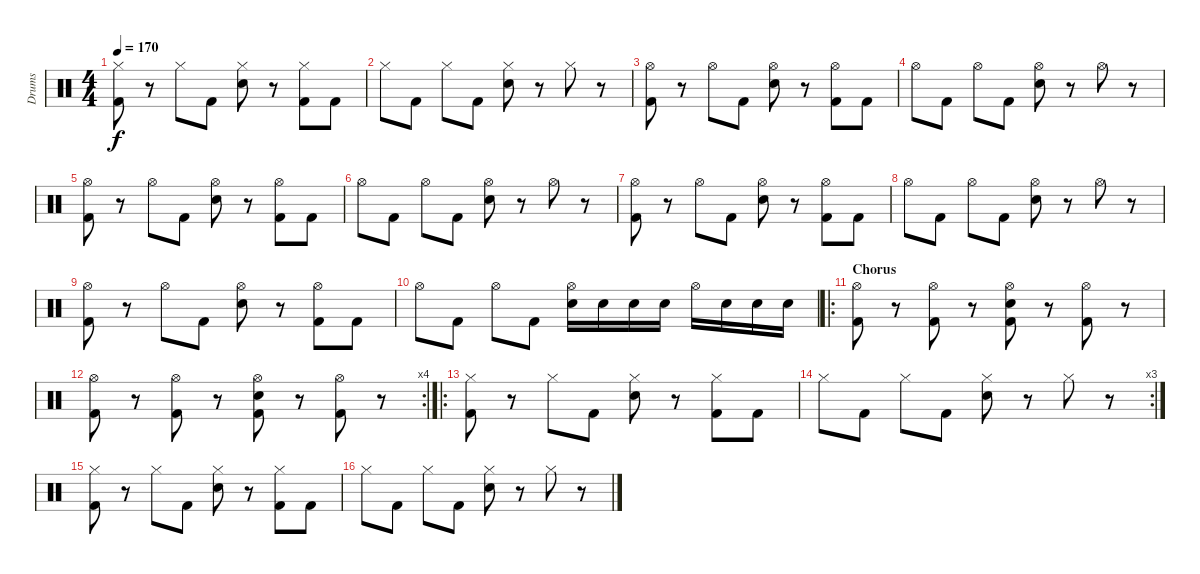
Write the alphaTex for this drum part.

\track ("Drums" "Drums") {instrument percussion}
\staff {score}
\articulation defaults
\ts (4 4)
\tempo 170
\clef neutral
\ks c
("Hi-Hat (closed)" "Kick (hit) 2").8{dy f} r.8 "Hi-Hat (closed)".8 "Kick (hit) 2".8 ("Hi-Hat (closed)" "Snare (hit) 2").8 r.8 ("Hi-Hat (closed)" "Kick (hit) 2").8 "Kick (hit) 2".8 |
"Hi-Hat (closed)".8 "Kick (hit) 2".8 "Hi-Hat (closed)".8 "Kick (hit) 2".8 ("Hi-Hat (closed)" "Snare (hit) 2").8 r.8 "Hi-Hat (closed)".8 r.8 |
("Hi-Hat (open)" "Kick (hit) 2").8 r.8 "Hi-Hat (open)".8 "Kick (hit) 2".8 ("Hi-Hat (open)" "Snare (hit) 2").8 r.8 ("Hi-Hat (open)" "Kick (hit) 2").8 "Kick (hit) 2".8 |
"Hi-Hat (open)".8 "Kick (hit) 2".8 "Hi-Hat (open)".8 "Kick (hit) 2".8 ("Hi-Hat (open)" "Snare (hit) 2").8 r.8 "Hi-Hat (open)".8 r.8 |
("Hi-Hat (open)" "Kick (hit) 2").8 r.8 "Hi-Hat (open)".8 "Kick (hit) 2".8 ("Hi-Hat (open)" "Snare (hit) 2").8 r.8 ("Hi-Hat (open)" "Kick (hit) 2").8 "Kick (hit) 2".8 |
"Hi-Hat (open)".8 "Kick (hit) 2".8 "Hi-Hat (open)".8 "Kick (hit) 2".8 ("Hi-Hat (open)" "Snare (hit) 2").8 r.8 "Hi-Hat (open)".8 r.8 |
("Hi-Hat (open)" "Kick (hit) 2").8 r.8 "Hi-Hat (open)".8 "Kick (hit) 2".8 ("Hi-Hat (open)" "Snare (hit) 2").8 r.8 ("Hi-Hat (open)" "Kick (hit) 2").8 "Kick (hit) 2".8 |
"Hi-Hat (open)".8 "Kick (hit) 2".8 "Hi-Hat (open)".8 "Kick (hit) 2".8 ("Hi-Hat (open)" "Snare (hit) 2").8 r.8 "Hi-Hat (open)".8 r.8 |
("Hi-Hat (open)" "Kick (hit) 2").8 r.8 "Hi-Hat (open)".8 "Kick (hit) 2".8 ("Hi-Hat (open)" "Snare (hit) 2").8 r.8 ("Hi-Hat (open)" "Kick (hit) 2").8 "Kick (hit) 2".8 |
"Hi-Hat (open)".8 "Kick (hit) 2".8 "Hi-Hat (open)".8 "Kick (hit) 2".8 ("Hi-Hat (open)" "Snare (hit) 2").16 "Snare (hit) 2".16 "Snare (hit) 2".16 "Snare (hit) 2".16 "Hi-Hat (open)".16 "Snare (hit) 2".16 "Snare (hit) 2".16 "Snare (hit) 2".16 |
\ro
\section ("" "Chorus")
("Hi-Hat (open)" "Kick (hit) 2").8 r.8 ("Hi-Hat (open)" "Kick (hit) 2").8 r.8 ("Hi-Hat (open)" "Snare (hit) 2" "Kick (hit) 2").8 r.8 ("Hi-Hat (open)" "Kick (hit) 2").8 r.8 |
\rc 4
("Hi-Hat (open)" "Kick (hit) 2").8 r.8 ("Hi-Hat (open)" "Kick (hit) 2").8 r.8 ("Hi-Hat (open)" "Snare (hit) 2" "Kick (hit) 2").8 r.8 ("Hi-Hat (open)" "Kick (hit) 2").8 r.8 |
\ro
("Hi-Hat (closed)" "Kick (hit) 2").8 r.8 "Hi-Hat (closed)".8 "Kick (hit) 2".8 ("Hi-Hat (closed)" "Snare (hit) 2").8 r.8 ("Hi-Hat (closed)" "Kick (hit) 2").8 "Kick (hit) 2".8 |
\rc 3 "Hi-Hat (closed)".8 "Kick (hit) 2".8 "Hi-Hat (closed)".8 "Kick (hit) 2".8
("Hi-Hat (closed)" "Snare (hit) 2").8 r.8 "Hi-Hat (closed)".8 r.8 |
("Hi-Hat (closed)" "Kick (hit) 2").8 r.8 "Hi-Hat (closed)".8 "Kick (hit) 2".8 ("Hi-Hat (closed)" "Snare (hit) 2").8 r.8 ("Hi-Hat (closed)" "Kick (hit) 2").8 "Kick (hit) 2".8 |
"Hi-Hat (closed)".8 "Kick (hit) 2".8 "Hi-Hat (closed)".8 "Kick (hit) 2".8 ("Hi-Hat (closed)" "Snare (hit) 2").8 r.8 "Hi-Hat (closed)".8 r.8
